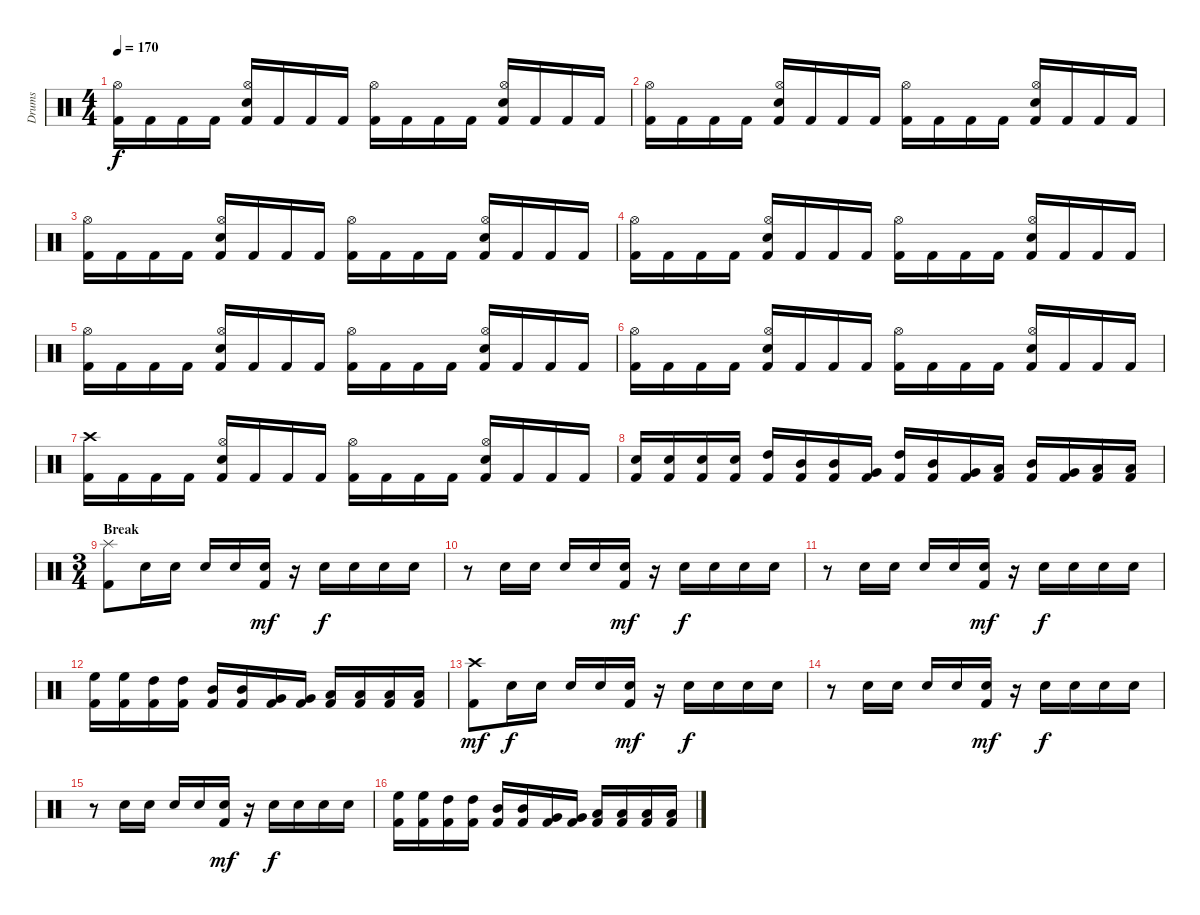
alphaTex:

\track ("Drums" "Drums") {instrument percussion}
\staff {score}
\articulation defaults
\ts (4 4)
\tempo 170
\clef neutral
\ks c
("Kick (hit) 2" "Hi-Hat (open)").16{dy f} "Kick (hit) 2".16 "Kick (hit) 2".16 "Kick (hit) 2".16 ("Kick (hit) 2" "Snare (hit) 2" "Hi-Hat (open)").16 "Kick (hit) 2".16 "Kick (hit) 2".16 "Kick (hit) 2".16 ("Kick (hit) 2" "Hi-Hat (open)").16 "Kick (hit) 2".16 "Kick (hit) 2".16 "Kick (hit) 2".16 ("Kick (hit) 2" "Snare (hit) 2" "Hi-Hat (open)").16 "Kick (hit) 2".16 "Kick (hit) 2".16 "Kick (hit) 2".16 |
("Kick (hit) 2" "Hi-Hat (open)").16 "Kick (hit) 2".16 "Kick (hit) 2".16 "Kick (hit) 2".16 ("Kick (hit) 2" "Snare (hit) 2" "Hi-Hat (open)").16 "Kick (hit) 2".16 "Kick (hit) 2".16 "Kick (hit) 2".16 ("Kick (hit) 2" "Hi-Hat (open)").16 "Kick (hit) 2".16 "Kick (hit) 2".16 "Kick (hit) 2".16 ("Kick (hit) 2" "Snare (hit) 2" "Hi-Hat (open)").16 "Kick (hit) 2".16 "Kick (hit) 2".16 "Kick (hit) 2".16 |
("Kick (hit) 2" "Hi-Hat (open)").16 "Kick (hit) 2".16 "Kick (hit) 2".16 "Kick (hit) 2".16 ("Kick (hit) 2" "Snare (hit) 2" "Hi-Hat (open)").16 "Kick (hit) 2".16 "Kick (hit) 2".16 "Kick (hit) 2".16 ("Kick (hit) 2" "Hi-Hat (open)").16 "Kick (hit) 2".16 "Kick (hit) 2".16 "Kick (hit) 2".16 ("Kick (hit) 2" "Snare (hit) 2" "Hi-Hat (open)").16 "Kick (hit) 2".16 "Kick (hit) 2".16 "Kick (hit) 2".16 |
("Kick (hit) 2" "Hi-Hat (open)").16 "Kick (hit) 2".16 "Kick (hit) 2".16 "Kick (hit) 2".16 ("Kick (hit) 2" "Snare (hit) 2" "Hi-Hat (open)").16 "Kick (hit) 2".16 "Kick (hit) 2".16 "Kick (hit) 2".16 ("Kick (hit) 2" "Hi-Hat (open)").16 "Kick (hit) 2".16 "Kick (hit) 2".16 "Kick (hit) 2".16 ("Kick (hit) 2" "Snare (hit) 2" "Hi-Hat (open)").16 "Kick (hit) 2".16 "Kick (hit) 2".16 "Kick (hit) 2".16 |
("Kick (hit) 2" "Hi-Hat (open)").16 "Kick (hit) 2".16 "Kick (hit) 2".16 "Kick (hit) 2".16 ("Kick (hit) 2" "Snare (hit) 2" "Hi-Hat (open)").16 "Kick (hit) 2".16 "Kick (hit) 2".16 "Kick (hit) 2".16 ("Kick (hit) 2" "Hi-Hat (open)").16 "Kick (hit) 2".16 "Kick (hit) 2".16 "Kick (hit) 2".16 ("Kick (hit) 2" "Snare (hit) 2" "Hi-Hat (open)").16 "Kick (hit) 2".16 "Kick (hit) 2".16 "Kick (hit) 2".16 |
("Kick (hit) 2" "Hi-Hat (open)").16 "Kick (hit) 2".16 "Kick (hit) 2".16 "Kick (hit) 2".16 ("Kick (hit) 2" "Snare (hit) 2" "Hi-Hat (open)").16 "Kick (hit) 2".16 "Kick (hit) 2".16 "Kick (hit) 2".16 ("Kick (hit) 2" "Hi-Hat (open)").16 "Kick (hit) 2".16 "Kick (hit) 2".16 "Kick (hit) 2".16 ("Kick (hit) 2" "Snare (hit) 2" "Hi-Hat (open)").16 "Kick (hit) 2".16 "Kick (hit) 2".16 "Kick (hit) 2".16 |
("Kick (hit) 2" "Crash high (hit)").16 "Kick (hit) 2".16 "Kick (hit) 2".16 "Kick (hit) 2".16 ("Kick (hit) 2" "Snare (hit) 2" "Hi-Hat (open)").16 "Kick (hit) 2".16 "Kick (hit) 2".16 "Kick (hit) 2".16 ("Kick (hit) 2" "Hi-Hat (open)").16 "Kick (hit) 2".16 "Kick (hit) 2".16 "Kick (hit) 2".16 ("Kick (hit) 2" "Snare (hit) 2" "Hi-Hat (open)").16 "Kick (hit) 2".16 "Kick (hit) 2".16 "Kick (hit) 2".16 |
("Kick (hit) 2" "Snare (hit) 2").16 ("Kick (hit) 2" "Snare (hit) 2").16 ("Kick (hit) 2" "Snare (hit) 2").16 ("Kick (hit) 2" "Snare (hit) 2").16 ("Kick (hit) 2" "High Tom (hit)").16 ("Kick (hit) 2" "Mid Tom (hit)").16 ("Kick (hit) 2" "Mid Tom (hit)").16 ("Kick (hit) 2" "Very Low Tom (hit)").16 ("Kick (hit) 2" "High Tom (hit)").16 ("Kick (hit) 2" "Mid Tom (hit)").16 ("Kick (hit) 2" "Very Low Tom (hit)").16 ("Kick (hit) 2" "Low Floor Tom (hit)").16 ("Kick (hit) 2" "Mid Tom (hit)").16 ("Kick (hit) 2" "Very Low Tom (hit)").16 ("Kick (hit) 2" "Low Floor Tom (hit)").16 ("Kick (hit) 2" "Low Floor Tom (hit)").16 |
\ts (3 4)
\section ("" "Break")
("Kick (hit) 2" "Splash (hit)").8 "Snare (hit) 2".16 "Snare (hit) 2".16 "Snare (hit) 2".16 "Snare (hit) 2".16 ("Kick (hit) 2" "Snare (hit) 2").16{dy mf} r.16 "Snare (hit) 2".16{dy f} "Snare (hit) 2".16 "Snare (hit) 2".16 "Snare (hit) 2".16 |
r.8 "Snare (hit) 2".16 "Snare (hit) 2".16 "Snare (hit) 2".16 "Snare (hit) 2".16 ("Kick (hit) 2" "Snare (hit) 2").16{dy mf} r.16 "Snare (hit) 2".16{dy f} "Snare (hit) 2".16 "Snare (hit) 2".16 "Snare (hit) 2".16 |
r.8 "Snare (hit) 2".16 "Snare (hit) 2".16 "Snare (hit) 2".16 "Snare (hit) 2".16 ("Kick (hit) 2" "Snare (hit) 2").16{dy mf} r.16 "Snare (hit) 2".16{dy f} "Snare (hit) 2".16 "Snare (hit) 2".16 "Snare (hit) 2".16 |
("Kick (hit) 2" "High Floor Tom (hit)").16 ("Kick (hit) 2" "High Floor Tom (hit)").16 ("Kick (hit) 2" "High Tom (hit)").16 ("Kick (hit) 2" "High Tom (hit)").16 ("Kick (hit) 2" "Mid Tom (hit)").16 ("Kick (hit) 2" "Mid Tom (hit)").16 ("Kick (hit) 2" "Very Low Tom (hit)").16 ("Kick (hit) 2" "Very Low Tom (hit)").16 ("Kick (hit) 2" "Low Floor Tom (hit)").16 ("Kick (hit) 2" "Low Floor Tom (hit)").16 ("Kick (hit) 2" "Low Floor Tom (hit)").16 ("Kick (hit) 2" "Low Floor Tom (hit)").16 |
("Kick (hit) 2" "Crash high (hit)").8{dy mf} "Snare (hit) 2".16{dy f} "Snare (hit) 2".16 "Snare (hit) 2".16 "Snare (hit) 2".16 ("Kick (hit) 2" "Snare (hit) 2").16{dy mf} r.16 "Snare (hit) 2".16{dy f} "Snare (hit) 2".16 "Snare (hit) 2".16 "Snare (hit) 2".16 |
r.8 "Snare (hit) 2".16 "Snare (hit) 2".16 "Snare (hit) 2".16 "Snare (hit) 2".16 ("Kick (hit) 2" "Snare (hit) 2").16{dy mf} r.16 "Snare (hit) 2".16{dy f} "Snare (hit) 2".16 "Snare (hit) 2".16 "Snare (hit) 2".16 |
r.8 "Snare (hit) 2".16 "Snare (hit) 2".16 "Snare (hit) 2".16 "Snare (hit) 2".16 ("Kick (hit) 2" "Snare (hit) 2").16{dy mf} r.16 "Snare (hit) 2".16{dy f} "Snare (hit) 2".16 "Snare (hit) 2".16 "Snare (hit) 2".16 |
("Kick (hit) 2" "High Floor Tom (hit)").16 ("Kick (hit) 2" "High Floor Tom (hit)").16 ("Kick (hit) 2" "High Tom (hit)").16 ("Kick (hit) 2" "High Tom (hit)").16 ("Kick (hit) 2" "Mid Tom (hit)").16 ("Kick (hit) 2" "Mid Tom (hit)").16 ("Kick (hit) 2" "Very Low Tom (hit)").16 ("Kick (hit) 2" "Very Low Tom (hit)").16 ("Kick (hit) 2" "Low Floor Tom (hit)").16 ("Kick (hit) 2" "Low Floor Tom (hit)").16 ("Kick (hit) 2" "Low Floor Tom (hit)").16 ("Kick (hit) 2" "Low Floor Tom (hit)").16
